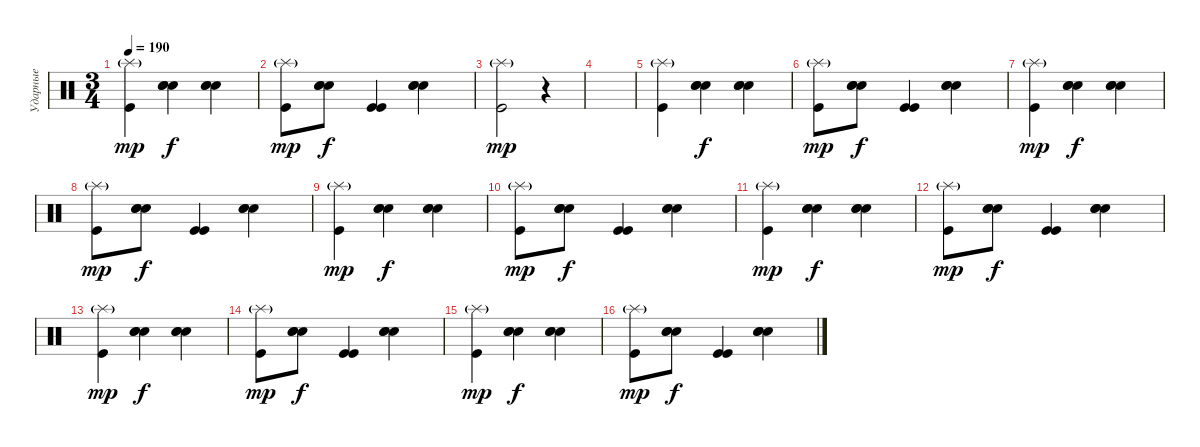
\track ("Ударные" "Ударные") {instrument percussion}
\staff {score}
\articulation defaults
\ts (3 4)
\tempo 190
\clef neutral
\ks c
("Splash (hit)"{g} "Kick (hit)").4{dy mp} ("Snare (hit) 2" "Snare (hit) 2" "Snare (hit) 2").4{dy f} ("Snare (hit) 2" "Snare (hit) 2" "Snare (hit) 2").4 |
("Splash (hit)"{g} "Kick (hit)").8{dy mp} ("Snare (hit) 2" "Snare (hit) 2" "Snare (hit) 2").8{dy f} ("Kick (hit)" "Kick (hit)").4 ("Snare (hit) 2" "Snare (hit) 2" "Snare (hit) 2").4 |
("Splash (hit)"{g} "Kick (hit)").2{dy mp} r.4 |
|
("Splash (hit)"{g} "Kick (hit)").4 ("Snare (hit) 2" "Snare (hit) 2" "Snare (hit) 2").4{dy f} ("Snare (hit) 2" "Snare (hit) 2" "Snare (hit) 2").4 |
("Splash (hit)"{g} "Kick (hit)").8{dy mp} ("Snare (hit) 2" "Snare (hit) 2" "Snare (hit) 2").8{dy f} ("Kick (hit)" "Kick (hit)").4 ("Snare (hit) 2" "Snare (hit) 2" "Snare (hit) 2").4 |
("Splash (hit)"{g} "Kick (hit)").4{dy mp} ("Snare (hit) 2" "Snare (hit) 2" "Snare (hit) 2").4{dy f} ("Snare (hit) 2" "Snare (hit) 2" "Snare (hit) 2").4 |
("Splash (hit)"{g} "Kick (hit)").8{dy mp} ("Snare (hit) 2" "Snare (hit) 2" "Snare (hit) 2").8{dy f} ("Kick (hit)" "Kick (hit)").4 ("Snare (hit) 2" "Snare (hit) 2" "Snare (hit) 2").4 |
("Splash (hit)"{g} "Kick (hit)").4{dy mp} ("Snare (hit) 2" "Snare (hit) 2" "Snare (hit) 2").4{dy f} ("Snare (hit) 2" "Snare (hit) 2" "Snare (hit) 2").4 |
("Splash (hit)"{g} "Kick (hit)").8{dy mp} ("Snare (hit) 2" "Snare (hit) 2" "Snare (hit) 2").8{dy f} ("Kick (hit)" "Kick (hit)").4 ("Snare (hit) 2" "Snare (hit) 2" "Snare (hit) 2").4 |
("Splash (hit)"{g} "Kick (hit)").4{dy mp} ("Snare (hit) 2" "Snare (hit) 2" "Snare (hit) 2").4{dy f} ("Snare (hit) 2" "Snare (hit) 2" "Snare (hit) 2").4 |
("Splash (hit)"{g} "Kick (hit)").8{dy mp} ("Snare (hit) 2" "Snare (hit) 2" "Snare (hit) 2").8{dy f} ("Kick (hit)" "Kick (hit)").4 ("Snare (hit) 2" "Snare (hit) 2" "Snare (hit) 2").4 |
("Splash (hit)"{g} "Kick (hit)").4{dy mp} ("Snare (hit) 2" "Snare (hit) 2" "Snare (hit) 2").4{dy f} ("Snare (hit) 2" "Snare (hit) 2" "Snare (hit) 2").4 |
("Splash (hit)"{g} "Kick (hit)").8{dy mp} ("Snare (hit) 2" "Snare (hit) 2" "Snare (hit) 2").8{dy f} ("Kick (hit)" "Kick (hit)").4 ("Snare (hit) 2" "Snare (hit) 2" "Snare (hit) 2").4 |
("Splash (hit)"{g} "Kick (hit)").4{dy mp} ("Snare (hit) 2" "Snare (hit) 2" "Snare (hit) 2").4{dy f} ("Snare (hit) 2" "Snare (hit) 2" "Snare (hit) 2").4 |
("Splash (hit)"{g} "Kick (hit)").8{dy mp} ("Snare (hit) 2" "Snare (hit) 2" "Snare (hit) 2").8{dy f} ("Kick (hit)" "Kick (hit)").4 ("Snare (hit) 2" "Snare (hit) 2" "Snare (hit) 2").4
